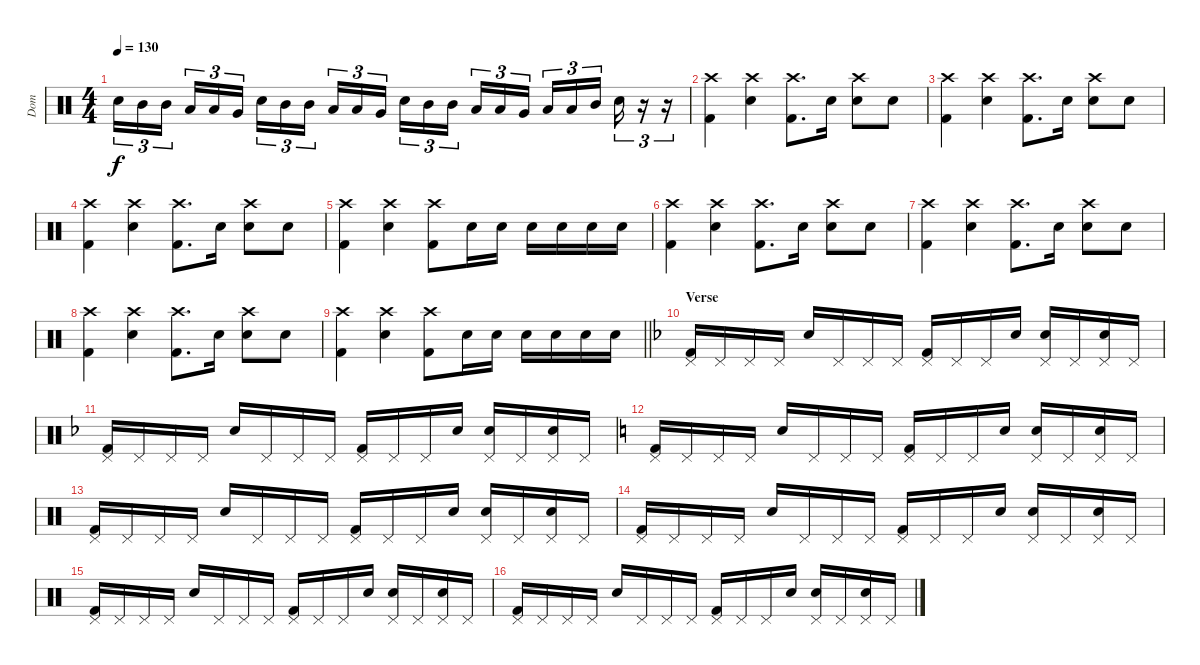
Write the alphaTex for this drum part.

\track ("Dom" "Dom") {instrument percussion}
\staff {score}
\articulation defaults
\ts (4 4)
\tempo 130
\clef neutral
\ks c "Snare (hit) 2".16{tu (3 2) dy f} "Mid Tom (hit)".16{tu (3 2)} "Mid Tom (hit)".16{tu (3 2) beam splitsecondary} "Low Tom (hit)".16{tu (3 2)} "Low Tom (hit)".16{tu (3 2)} "Very Low Tom (hit)".16{tu (3 2)} "Snare (hit) 2".16{tu (3 2)} "Mid Tom (hit)".16{tu (3 2)} "Mid Tom (hit)".16{tu (3 2) beam splitsecondary} "Low Tom (hit)".16{tu (3 2)} "Low Tom (hit)".16{tu (3 2)} "Very Low Tom (hit)".16{tu (3 2)} "Snare (hit) 2".16{tu (3 2)} "Mid Tom (hit)".16{tu (3 2)} "Mid Tom (hit)".16{tu (3 2) beam splitsecondary} "Low Tom (hit)".16{tu (3 2)} "Low Tom (hit)".16{tu (3 2)} "Very Low Tom (hit)".16{tu (3 2)} "Low Tom (hit)".16{tu (3 2)} "Low Tom (hit)".16{tu (3 2)} "Mid Tom (hit)".16{tu (3 2) beam splitsecondary} "Snare (hit) 2".16{tu (3 2)}
r.16{tu (3 2)} r.16{tu (3 2)} |
("Crash high (hit)" "Kick (hit) 2").4 ("Crash high (hit)" "Electric Snare (hit)").4 ("Crash high (hit)" "Kick (hit) 2").8{d} "Electric Snare (hit)".16 ("Crash high (hit)" "Electric Snare (hit)").8 "Electric Snare (hit)".8 |
("Crash high (hit)" "Kick (hit) 2").4 ("Crash high (hit)" "Electric Snare (hit)").4 ("Crash high (hit)" "Kick (hit) 2").8{d} "Electric Snare (hit)".16 ("Crash high (hit)" "Electric Snare (hit)").8 "Electric Snare (hit)".8 |
("Crash high (hit)" "Kick (hit) 2").4 ("Crash high (hit)" "Electric Snare (hit)").4 ("Crash high (hit)" "Kick (hit) 2").8{d} "Electric Snare (hit)".16 ("Crash high (hit)" "Electric Snare (hit)").8 "Electric Snare (hit)".8 |
("Crash high (hit)" "Kick (hit) 2").4 ("Crash high (hit)" "Electric Snare (hit)").4 ("Crash high (hit)" "Kick (hit) 2").8 "Electric Snare (hit)".16 "Electric Snare (hit)".16 "Electric Snare (hit)".16 "Electric Snare (hit)".16 "Electric Snare (hit)".16 "Electric Snare (hit)".16 |
("Crash high (hit)" "Kick (hit) 2").4 ("Crash high (hit)" "Electric Snare (hit)").4 ("Crash high (hit)" "Kick (hit) 2").8{d} "Electric Snare (hit)".16 ("Crash high (hit)" "Electric Snare (hit)").8 "Electric Snare (hit)".8 |
("Crash high (hit)" "Kick (hit) 2").4 ("Crash high (hit)" "Electric Snare (hit)").4 ("Crash high (hit)" "Kick (hit) 2").8{d} "Electric Snare (hit)".16 ("Crash high (hit)" "Electric Snare (hit)").8 "Electric Snare (hit)".8 |
("Crash high (hit)" "Kick (hit) 2").4 ("Crash high (hit)" "Electric Snare (hit)").4 ("Crash high (hit)" "Kick (hit) 2").8{d} "Electric Snare (hit)".16 ("Crash high (hit)" "Electric Snare (hit)").8 "Electric Snare (hit)".8 |
\barLineRight lightlight
("Crash high (hit)" "Kick (hit) 2").4 ("Crash high (hit)" "Electric Snare (hit)").4 ("Crash high (hit)" "Kick (hit) 2").8 "Electric Snare (hit)".16 "Electric Snare (hit)".16 "Electric Snare (hit)".16 "Electric Snare (hit)".16 "Electric Snare (hit)".16 "Electric Snare (hit)".16 |
\section ("" "Verse")
\ks f
("Pedal Hi-Hat (hit)" "Kick (hit) 2").16 "Pedal Hi-Hat (hit)".16 "Pedal Hi-Hat (hit)".16 "Pedal Hi-Hat (hit)".16 "Electric Snare (hit)".16 "Pedal Hi-Hat (hit)".16 "Pedal Hi-Hat (hit)".16 "Pedal Hi-Hat (hit)".16 ("Pedal Hi-Hat (hit)" "Kick (hit) 2").16 "Pedal Hi-Hat (hit)".16 "Pedal Hi-Hat (hit)".16 "Electric Snare (hit)".16 ("Pedal Hi-Hat (hit)" "Electric Snare (hit)").16 "Pedal Hi-Hat (hit)".16 ("Pedal Hi-Hat (hit)" "Electric Snare (hit)").16 "Pedal Hi-Hat (hit)".16 |
("Pedal Hi-Hat (hit)" "Kick (hit) 2").16 "Pedal Hi-Hat (hit)".16 "Pedal Hi-Hat (hit)".16 "Pedal Hi-Hat (hit)".16 "Electric Snare (hit)".16 "Pedal Hi-Hat (hit)".16 "Pedal Hi-Hat (hit)".16 "Pedal Hi-Hat (hit)".16 ("Pedal Hi-Hat (hit)" "Kick (hit) 2").16 "Pedal Hi-Hat (hit)".16 "Pedal Hi-Hat (hit)".16 "Electric Snare (hit)".16 ("Pedal Hi-Hat (hit)" "Electric Snare (hit)").16 "Pedal Hi-Hat (hit)".16 ("Pedal Hi-Hat (hit)" "Electric Snare (hit)").16 "Pedal Hi-Hat (hit)".16 |
\ks c
("Pedal Hi-Hat (hit)" "Kick (hit) 2").16 "Pedal Hi-Hat (hit)".16 "Pedal Hi-Hat (hit)".16 "Pedal Hi-Hat (hit)".16 "Electric Snare (hit)".16 "Pedal Hi-Hat (hit)".16 "Pedal Hi-Hat (hit)".16 "Pedal Hi-Hat (hit)".16 ("Pedal Hi-Hat (hit)" "Kick (hit) 2").16 "Pedal Hi-Hat (hit)".16 "Pedal Hi-Hat (hit)".16 "Electric Snare (hit)".16 ("Pedal Hi-Hat (hit)" "Electric Snare (hit)").16 "Pedal Hi-Hat (hit)".16 ("Pedal Hi-Hat (hit)" "Electric Snare (hit)").16 "Pedal Hi-Hat (hit)".16 |
("Pedal Hi-Hat (hit)" "Kick (hit) 2").16 "Pedal Hi-Hat (hit)".16 "Pedal Hi-Hat (hit)".16 "Pedal Hi-Hat (hit)".16 "Electric Snare (hit)".16 "Pedal Hi-Hat (hit)".16 "Pedal Hi-Hat (hit)".16 "Pedal Hi-Hat (hit)".16 ("Pedal Hi-Hat (hit)" "Kick (hit) 2").16 "Pedal Hi-Hat (hit)".16 "Pedal Hi-Hat (hit)".16 "Electric Snare (hit)".16 ("Pedal Hi-Hat (hit)" "Electric Snare (hit)").16 "Pedal Hi-Hat (hit)".16 ("Pedal Hi-Hat (hit)" "Electric Snare (hit)").16 "Pedal Hi-Hat (hit)".16 |
("Pedal Hi-Hat (hit)" "Kick (hit) 2").16 "Pedal Hi-Hat (hit)".16 "Pedal Hi-Hat (hit)".16 "Pedal Hi-Hat (hit)".16 "Electric Snare (hit)".16 "Pedal Hi-Hat (hit)".16 "Pedal Hi-Hat (hit)".16 "Pedal Hi-Hat (hit)".16 ("Pedal Hi-Hat (hit)" "Kick (hit) 2").16 "Pedal Hi-Hat (hit)".16 "Pedal Hi-Hat (hit)".16 "Electric Snare (hit)".16 ("Pedal Hi-Hat (hit)" "Electric Snare (hit)").16 "Pedal Hi-Hat (hit)".16 ("Pedal Hi-Hat (hit)" "Electric Snare (hit)").16 "Pedal Hi-Hat (hit)".16 |
("Pedal Hi-Hat (hit)" "Kick (hit) 2").16 "Pedal Hi-Hat (hit)".16 "Pedal Hi-Hat (hit)".16 "Pedal Hi-Hat (hit)".16 "Electric Snare (hit)".16 "Pedal Hi-Hat (hit)".16 "Pedal Hi-Hat (hit)".16 "Pedal Hi-Hat (hit)".16 ("Pedal Hi-Hat (hit)" "Kick (hit) 2").16 "Pedal Hi-Hat (hit)".16 "Pedal Hi-Hat (hit)".16 "Electric Snare (hit)".16 ("Pedal Hi-Hat (hit)" "Electric Snare (hit)").16 "Pedal Hi-Hat (hit)".16 ("Pedal Hi-Hat (hit)" "Electric Snare (hit)").16 "Pedal Hi-Hat (hit)".16 |
("Pedal Hi-Hat (hit)" "Kick (hit) 2").16 "Pedal Hi-Hat (hit)".16 "Pedal Hi-Hat (hit)".16 "Pedal Hi-Hat (hit)".16 "Electric Snare (hit)".16 "Pedal Hi-Hat (hit)".16 "Pedal Hi-Hat (hit)".16 "Pedal Hi-Hat (hit)".16 ("Pedal Hi-Hat (hit)" "Kick (hit) 2").16 "Pedal Hi-Hat (hit)".16 "Pedal Hi-Hat (hit)".16 "Electric Snare (hit)".16 ("Pedal Hi-Hat (hit)" "Electric Snare (hit)").16 "Pedal Hi-Hat (hit)".16 ("Pedal Hi-Hat (hit)" "Electric Snare (hit)").16 "Pedal Hi-Hat (hit)".16
